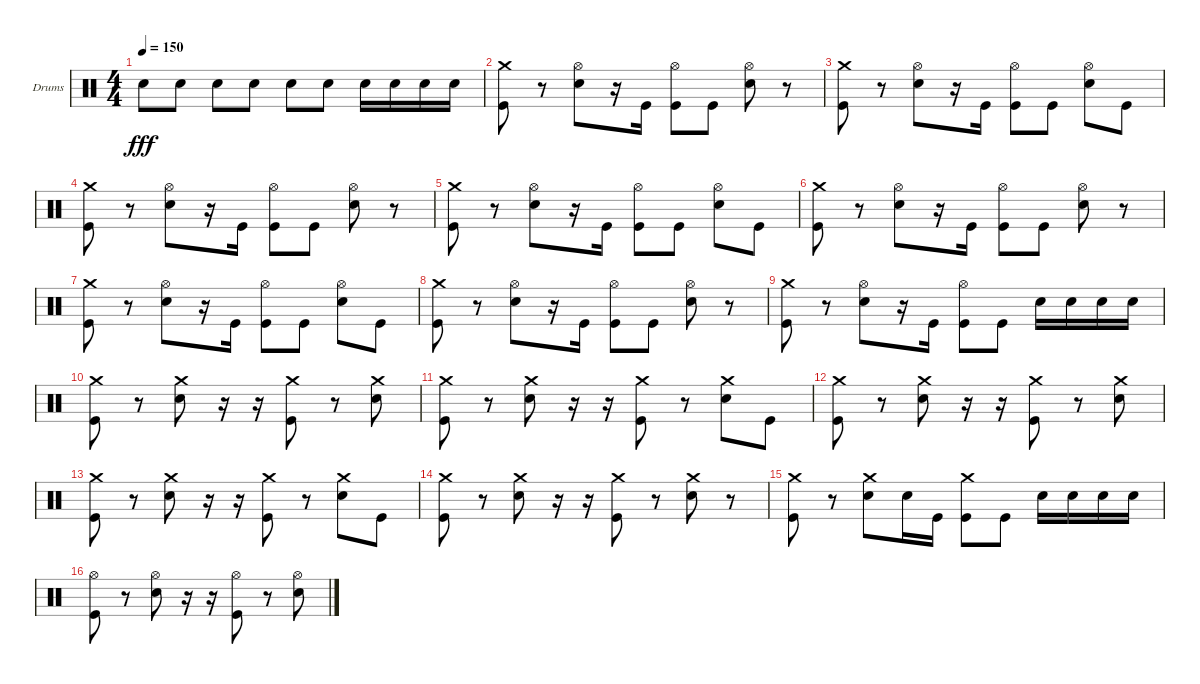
\bracketExtendMode groupsimilarinstruments
\firstSystemTrackNameOrientation horizontal
\otherSystemsTrackNameOrientation horizontal
\track ("Jamie" "Drums") {instrument percussion}
\staff {score}
\articulation defaults
\ts (4 4)
\tempo 150
\clef neutral
\ks c "Snare (hit) 2".8{dy fff} "Snare (hit) 2".8 "Snare (hit) 2".8 "Snare (hit) 2".8 "Snare (hit) 2".8 "Snare (hit) 2".8 "Snare (hit) 2".16 "Snare (hit) 2".16 "Snare (hit) 2".16 "Snare (hit) 2".16
|
("Kick (hit)" "Crash medium (hit)").8 r.8 ("Snare (hit) 2" "Hi-Hat (open)").8 r.16 "Kick (hit)".16 ("Kick (hit)" "Hi-Hat (open)").8 "Kick (hit)".8 ("Snare (hit) 2" "Hi-Hat (open)").8 r.8 |
("Kick (hit)" "Crash medium (hit)").8 r.8 ("Snare (hit) 2" "Hi-Hat (open)").8 r.16 "Kick (hit)".16 ("Kick (hit)" "Hi-Hat (open)").8 "Kick (hit)".8 ("Snare (hit) 2" "Hi-Hat (open)").8 "Kick (hit)".8 |
("Kick (hit)" "Crash medium (hit)").8 r.8 ("Snare (hit) 2" "Hi-Hat (open)").8 r.16 "Kick (hit)".16 ("Kick (hit)" "Hi-Hat (open)").8 "Kick (hit)".8 ("Snare (hit) 2" "Hi-Hat (open)").8 r.8 |
("Kick (hit)" "Crash medium (hit)").8 r.8 ("Snare (hit) 2" "Hi-Hat (open)").8 r.16 "Kick (hit)".16 ("Kick (hit)" "Hi-Hat (open)").8 "Kick (hit)".8 ("Snare (hit) 2" "Hi-Hat (open)").8 "Kick (hit)".8 |
("Kick (hit)" "Crash medium (hit)").8 r.8 ("Snare (hit) 2" "Hi-Hat (open)").8 r.16 "Kick (hit)".16 ("Kick (hit)" "Hi-Hat (open)").8 "Kick (hit)".8 ("Snare (hit) 2" "Hi-Hat (open)").8 r.8 |
("Kick (hit)" "Crash medium (hit)").8 r.8 ("Snare (hit) 2" "Hi-Hat (open)").8 r.16 "Kick (hit)".16 ("Kick (hit)" "Hi-Hat (open)").8 "Kick (hit)".8 ("Snare (hit) 2" "Hi-Hat (open)").8 "Kick (hit)".8 |
("Kick (hit)" "Crash medium (hit)").8 r.8 ("Snare (hit) 2" "Hi-Hat (open)").8 r.16 "Kick (hit)".16 ("Kick (hit)" "Hi-Hat (open)").8 "Kick (hit)".8 ("Snare (hit) 2" "Hi-Hat (open)").8 r.8 |
("Kick (hit)" "Crash medium (hit)").8 r.8 ("Snare (hit) 2" "Hi-Hat (open)").8 r.16 "Kick (hit)".16 ("Kick (hit)" "Hi-Hat (open)").8 "Kick (hit)".8 "Snare (hit) 2".16 "Snare (hit) 2".16 "Snare (hit) 2".16 "Snare (hit) 2".16 |
("Kick (hit)" "Crash medium (hit)").8 r.8 ("Snare (hit) 2" "Crash medium (hit)").8 r.16 r.16 ("Kick (hit)" "Crash medium (hit)").8 r.8 ("Snare (hit) 2" "Crash medium (hit)").8 |
("Kick (hit)" "Crash medium (hit)").8 r.8 ("Snare (hit) 2" "Crash medium (hit)").8 r.16 r.16 ("Kick (hit)" "Crash medium (hit)").8 r.8 ("Snare (hit) 2" "Crash medium (hit)").8 "Kick (hit)".8 |
("Kick (hit)" "Crash medium (hit)").8 r.8 ("Snare (hit) 2" "Crash medium (hit)").8 r.16 r.16 ("Kick (hit)" "Crash medium (hit)").8 r.8 ("Snare (hit) 2" "Crash medium (hit)").8 |
("Kick (hit)" "Crash medium (hit)").8 r.8 ("Snare (hit) 2" "Crash medium (hit)").8 r.16 r.16 ("Kick (hit)" "Crash medium (hit)").8 r.8 ("Snare (hit) 2" "Crash medium (hit)").8 "Kick (hit)".8 |
("Kick (hit)" "Crash medium (hit)").8 r.8 ("Snare (hit) 2" "Crash medium (hit)").8 r.16 r.16 ("Kick (hit)" "Crash medium (hit)").8 r.8 ("Snare (hit) 2" "Crash medium (hit)").8 r.8 |
("Kick (hit)" "Crash medium (hit)").8 r.8 ("Snare (hit) 2" "Crash medium (hit)").8 "Snare (hit) 2".16 "Kick (hit)".16 ("Kick (hit)" "Crash medium (hit)").8 "Kick (hit)".8 "Snare (hit) 2".16 "Snare (hit) 2".16 "Snare (hit) 2".16 "Snare (hit) 2".16 |
("Kick (hit)" "Hi-Hat (open)").8 r.8 ("Snare (hit) 2" "Hi-Hat (open)").8 r.16 r.16 ("Kick (hit)" "Hi-Hat (open)").8 r.8 ("Snare (hit) 2" "Hi-Hat (open)").8
